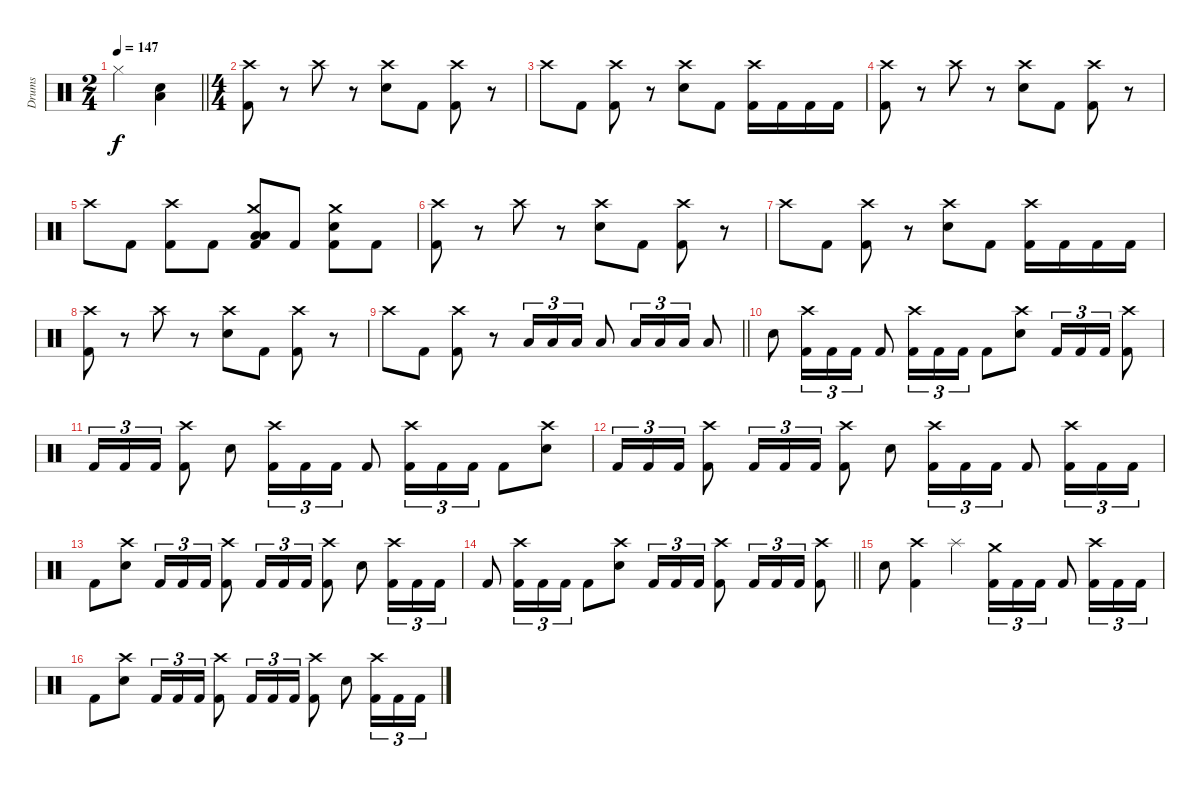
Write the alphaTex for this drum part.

\track ("Drums" "Drums") {instrument percussion}
\staff {score}
\articulation defaults
\ts (2 4)
\tempo 147
\clef neutral
\barLineRight lightlight
\ks c "Hi-Hat (closed)".4{dy f}
("Electric Snare (hit)" "Low Floor Tom (hit)").4 |
\ts (4 4)
\section ("" "")
("Crash high (hit)" "Kick (hit) 2").8 r.8 "Crash high (hit)".8 r.8 ("Crash high (hit)" "Electric Snare (hit)").8 "Kick (hit) 2".8 ("Crash high (hit)" "Kick (hit) 2").8 r.8 |
"Crash high (hit)".8 "Kick (hit) 2".8 ("Crash high (hit)" "Kick (hit) 2").8 r.8 ("Crash high (hit)" "Electric Snare (hit)").8 "Kick (hit) 2".8 ("Crash high (hit)" "Kick (hit) 2").16 "Kick (hit) 2".16 "Kick (hit) 2".16 "Kick (hit) 2".16 |
("Crash high (hit)" "Kick (hit) 2").8 r.8 "Crash high (hit)".8 r.8 ("Crash high (hit)" "Electric Snare (hit)").8 "Kick (hit) 2".8 ("Crash high (hit)" "Kick (hit) 2").8 r.8 |
"Crash high (hit)".8 "Kick (hit) 2".8 ("Crash high (hit)" "Kick (hit) 2").8 "Kick (hit) 2".8 ("Crash medium (hit)" "Low Floor Tom (hit)" "Low Tom (hit)" "Kick (hit) 2").8 "Kick (hit) 2".8 ("Crash medium (hit)" "Electric Snare (hit)" "Kick (hit) 2").8 "Kick (hit) 2".8 |
("Crash high (hit)" "Kick (hit) 2").8 r.8 "Crash high (hit)".8 r.8 ("Crash high (hit)" "Electric Snare (hit)").8 "Kick (hit) 2".8 ("Crash high (hit)" "Kick (hit) 2").8 r.8 |
"Crash high (hit)".8 "Kick (hit) 2".8 ("Crash high (hit)" "Kick (hit) 2").8 r.8 ("Crash high (hit)" "Electric Snare (hit)").8 "Kick (hit) 2".8 ("Crash high (hit)" "Kick (hit) 2").16 "Kick (hit) 2".16 "Kick (hit) 2".16 "Kick (hit) 2".16 |
("Crash high (hit)" "Kick (hit) 2").8 r.8 "Crash high (hit)".8 r.8 ("Crash high (hit)" "Electric Snare (hit)").8 "Kick (hit) 2".8 ("Crash high (hit)" "Kick (hit) 2").8 r.8 |
\barLineRight lightlight "Crash high (hit)".8 "Kick (hit) 2".8
("Crash high (hit)" "Kick (hit) 2").8 r.8 "Low Tom (hit)".16{tu (3 2)} "Low Tom (hit)".16{tu (3 2)} "Low Tom (hit)".16{tu (3 2)} "Low Tom (hit)".8 "Low Tom (hit)".16{tu (3 2)} "Low Tom (hit)".16{tu (3 2)} "Low Tom (hit)".16{tu (3 2)} "Low Tom (hit)".8 |
\section ("" "")
"Electric Snare (hit)".8 ("Crash high (hit)" "Kick (hit) 2").16{tu (3 2)} "Kick (hit) 2".16{tu (3 2)} "Kick (hit) 2".16{tu (3 2)} "Kick (hit) 2".8 ("Crash high (hit)" "Kick (hit) 2").16{tu (3 2)} "Kick (hit) 2".16{tu (3 2)} "Kick (hit) 2".16{tu (3 2)} "Kick (hit) 2".8 ("Crash high (hit)" "Electric Snare (hit)").8 "Kick (hit) 2".16{tu (3 2)} "Kick (hit) 2".16{tu (3 2)} "Kick (hit) 2".16{tu (3 2)} ("Crash high (hit)" "Kick (hit) 2").8 |
"Kick (hit) 2".16{tu (3 2)} "Kick (hit) 2".16{tu (3 2)} "Kick (hit) 2".16{tu (3 2)} ("Crash high (hit)" "Kick (hit) 2").8 "Electric Snare (hit)".8 ("Crash high (hit)" "Kick (hit) 2").16{tu (3 2)} "Kick (hit) 2".16{tu (3 2)} "Kick (hit) 2".16{tu (3 2)} "Kick (hit) 2".8 ("Crash high (hit)" "Kick (hit) 2").16{tu (3 2)} "Kick (hit) 2".16{tu (3 2)} "Kick (hit) 2".16{tu (3 2)} "Kick (hit) 2".8 ("Crash high (hit)" "Electric Snare (hit)").8 |
"Kick (hit) 2".16{tu (3 2)} "Kick (hit) 2".16{tu (3 2)} "Kick (hit) 2".16{tu (3 2)} ("Crash high (hit)" "Kick (hit) 2").8 "Kick (hit) 2".16{tu (3 2)} "Kick (hit) 2".16{tu (3 2)} "Kick (hit) 2".16{tu (3 2)} ("Crash high (hit)" "Kick (hit) 2").8 "Electric Snare (hit)".8 ("Crash high (hit)" "Kick (hit) 2").16{tu (3 2)} "Kick (hit) 2".16{tu (3 2)} "Kick (hit) 2".16{tu (3 2)} "Kick (hit) 2".8 ("Crash high (hit)" "Kick (hit) 2").16{tu (3 2)} "Kick (hit) 2".16{tu (3 2)} "Kick (hit) 2".16{tu (3 2)} |
"Kick (hit) 2".8 ("Crash high (hit)" "Electric Snare (hit)").8 "Kick (hit) 2".16{tu (3 2)} "Kick (hit) 2".16{tu (3 2)} "Kick (hit) 2".16{tu (3 2)} ("Crash high (hit)" "Kick (hit) 2").8 "Kick (hit) 2".16{tu (3 2)} "Kick (hit) 2".16{tu (3 2)} "Kick (hit) 2".16{tu (3 2)} ("Crash high (hit)" "Kick (hit) 2").8 "Electric Snare (hit)".8 ("Crash high (hit)" "Kick (hit) 2").16{tu (3 2)} "Kick (hit) 2".16{tu (3 2)} "Kick (hit) 2".16{tu (3 2)} |
\barLineRight lightlight "Kick (hit) 2".8
("Crash high (hit)" "Kick (hit) 2").16{tu (3 2)} "Kick (hit) 2".16{tu (3 2)} "Kick (hit) 2".16{tu (3 2)} "Kick (hit) 2".8 ("Crash high (hit)" "Electric Snare (hit)").8 "Kick (hit) 2".16{tu (3 2)} "Kick (hit) 2".16{tu (3 2)} "Kick (hit) 2".16{tu (3 2)} ("Crash high (hit)" "Kick (hit) 2").8 "Kick (hit) 2".16{tu (3 2)} "Kick (hit) 2".16{tu (3 2)} "Kick (hit) 2".16{tu (3 2)} ("Crash high (hit)" "Kick (hit) 2").8 |
\section ("" "")
"Electric Snare (hit)".8 ("Crash high (hit)" "Kick (hit) 2").4 "Splash (hit)".4 ("Crash medium (hit)" "Kick (hit) 2").16{tu (3 2)} "Kick (hit) 2".16{tu (3 2)} "Kick (hit) 2".16{tu (3 2)} "Kick (hit) 2".8 ("Crash high (hit)" "Kick (hit) 2").16{tu (3 2)} "Kick (hit) 2".16{tu (3 2)} "Kick (hit) 2".16{tu (3 2)} |
"Kick (hit) 2".8 ("Crash high (hit)" "Electric Snare (hit)").8 "Kick (hit) 2".16{tu (3 2)} "Kick (hit) 2".16{tu (3 2)} "Kick (hit) 2".16{tu (3 2)} ("Crash high (hit)" "Kick (hit) 2").8 "Kick (hit) 2".16{tu (3 2)} "Kick (hit) 2".16{tu (3 2)} "Kick (hit) 2".16{tu (3 2)} ("Crash high (hit)" "Kick (hit) 2").8 "Electric Snare (hit)".8 ("Crash high (hit)" "Kick (hit) 2").16{tu (3 2)} "Kick (hit) 2".16{tu (3 2)} "Kick (hit) 2".16{tu (3 2)}
